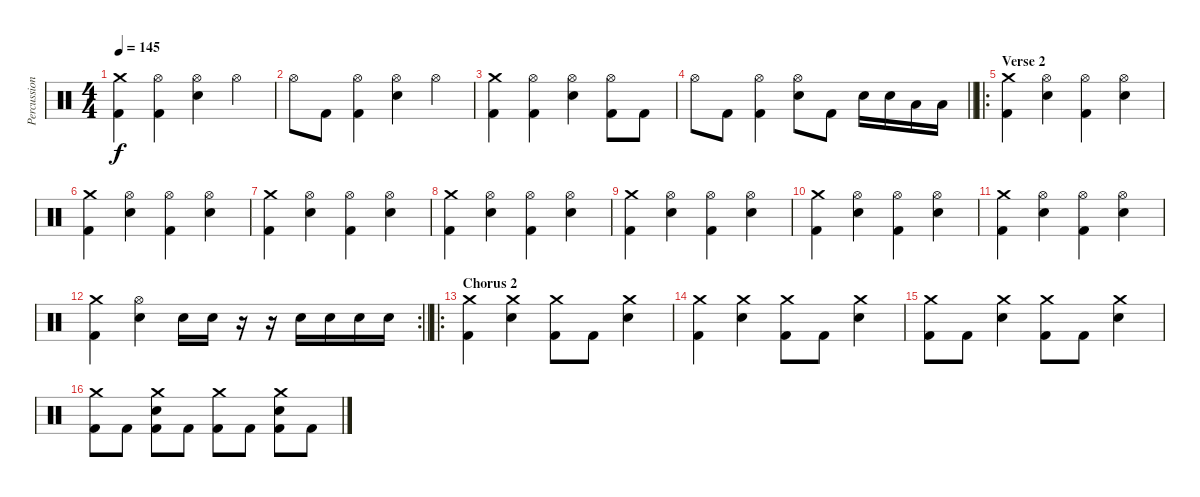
\track ("Percussion" "Percussion") {instrument percussion}
\staff {score}
\articulation defaults
\ts (4 4)
\tempo 145
\clef neutral
\ks c
("Crash medium (hit)" "Kick (hit) 2").4{dy f} ("Hi-Hat (open)" "Kick (hit) 2").4 ("Hi-Hat (open)" "Snare (hit) 2").4 "Hi-Hat (open)".4 |
"Hi-Hat (open)".8 "Kick (hit) 2".8 ("Hi-Hat (open)" "Kick (hit) 2").4 ("Hi-Hat (open)" "Snare (hit) 2").4 "Hi-Hat (open)".4 |
("Crash medium (hit)" "Kick (hit) 2").4 ("Hi-Hat (open)" "Kick (hit) 2").4 ("Hi-Hat (open)" "Snare (hit) 2").4 ("Hi-Hat (open)" "Kick (hit) 2").8 "Kick (hit) 2".8 |
\barLineRight lightlight "Hi-Hat (open)".8 "Kick (hit) 2".8
("Hi-Hat (open)" "Kick (hit) 2").4 ("Hi-Hat (open)" "Snare (hit) 2").8 "Kick (hit) 2".8 "Snare (hit) 2".16 "Snare (hit) 2".16 "Low Floor Tom (hit)".16 "Low Floor Tom (hit)".16 |
\ro
\section ("" "Verse 2")
("Crash medium (hit)" "Kick (hit) 2").4 ("Hi-Hat (open)" "Snare (hit) 2").4 ("Hi-Hat (open)" "Kick (hit) 2").4 ("Hi-Hat (open)" "Snare (hit) 2").4 |
("Crash medium (hit)" "Kick (hit) 2").4 ("Hi-Hat (open)" "Snare (hit) 2").4 ("Hi-Hat (open)" "Kick (hit) 2").4 ("Hi-Hat (open)" "Snare (hit) 2").4 |
("Crash medium (hit)" "Kick (hit) 2").4 ("Hi-Hat (open)" "Snare (hit) 2").4 ("Hi-Hat (open)" "Kick (hit) 2").4 ("Hi-Hat (open)" "Snare (hit) 2").4 |
("Crash medium (hit)" "Kick (hit) 2").4 ("Hi-Hat (open)" "Snare (hit) 2").4 ("Hi-Hat (open)" "Kick (hit) 2").4 ("Hi-Hat (open)" "Snare (hit) 2").4 |
("Crash medium (hit)" "Kick (hit) 2").4 ("Hi-Hat (open)" "Snare (hit) 2").4 ("Hi-Hat (open)" "Kick (hit) 2").4 ("Hi-Hat (open)" "Snare (hit) 2").4 |
("Crash medium (hit)" "Kick (hit) 2").4 ("Hi-Hat (open)" "Snare (hit) 2").4 ("Hi-Hat (open)" "Kick (hit) 2").4 ("Hi-Hat (open)" "Snare (hit) 2").4 |
("Crash medium (hit)" "Kick (hit) 2").4 ("Hi-Hat (open)" "Snare (hit) 2").4 ("Hi-Hat (open)" "Kick (hit) 2").4 ("Hi-Hat (open)" "Snare (hit) 2").4 |
\rc 2
\barLineRight lightlight
("Crash medium (hit)" "Kick (hit) 2").4 ("Hi-Hat (open)" "Snare (hit) 2").4 "Snare (hit) 2".16 "Snare (hit) 2".16 r.16 r.16 "Snare (hit) 2".16 "Snare (hit) 2".16 "Snare (hit) 2".16 "Snare (hit) 2".16 |
\ro
\section ("" "Chorus 2")
("Crash medium (hit)" "Kick (hit) 2").4 ("Crash medium (hit)" "Snare (hit) 2").4 ("Crash medium (hit)" "Kick (hit) 2").8 "Kick (hit) 2".8 ("Crash medium (hit)" "Snare (hit) 2").4 |
("Crash medium (hit)" "Kick (hit) 2").4 ("Crash medium (hit)" "Snare (hit) 2").4 ("Crash medium (hit)" "Kick (hit) 2").8 "Kick (hit) 2".8 ("Crash medium (hit)" "Snare (hit) 2").4 |
("Crash medium (hit)" "Kick (hit) 2").8 "Kick (hit) 2".8 ("Crash medium (hit)" "Snare (hit) 2").4 ("Crash medium (hit)" "Kick (hit) 2").8 "Kick (hit) 2".8 ("Crash medium (hit)" "Snare (hit) 2").4 |
("Crash medium (hit)" "Kick (hit) 2").8 "Kick (hit) 2".8 ("Crash medium (hit)" "Snare (hit) 2" "Kick (hit) 2").8 "Kick (hit) 2".8 ("Crash medium (hit)" "Kick (hit) 2").8 "Kick (hit) 2".8 ("Crash medium (hit)" "Snare (hit) 2" "Kick (hit) 2").8 "Kick (hit) 2".8
